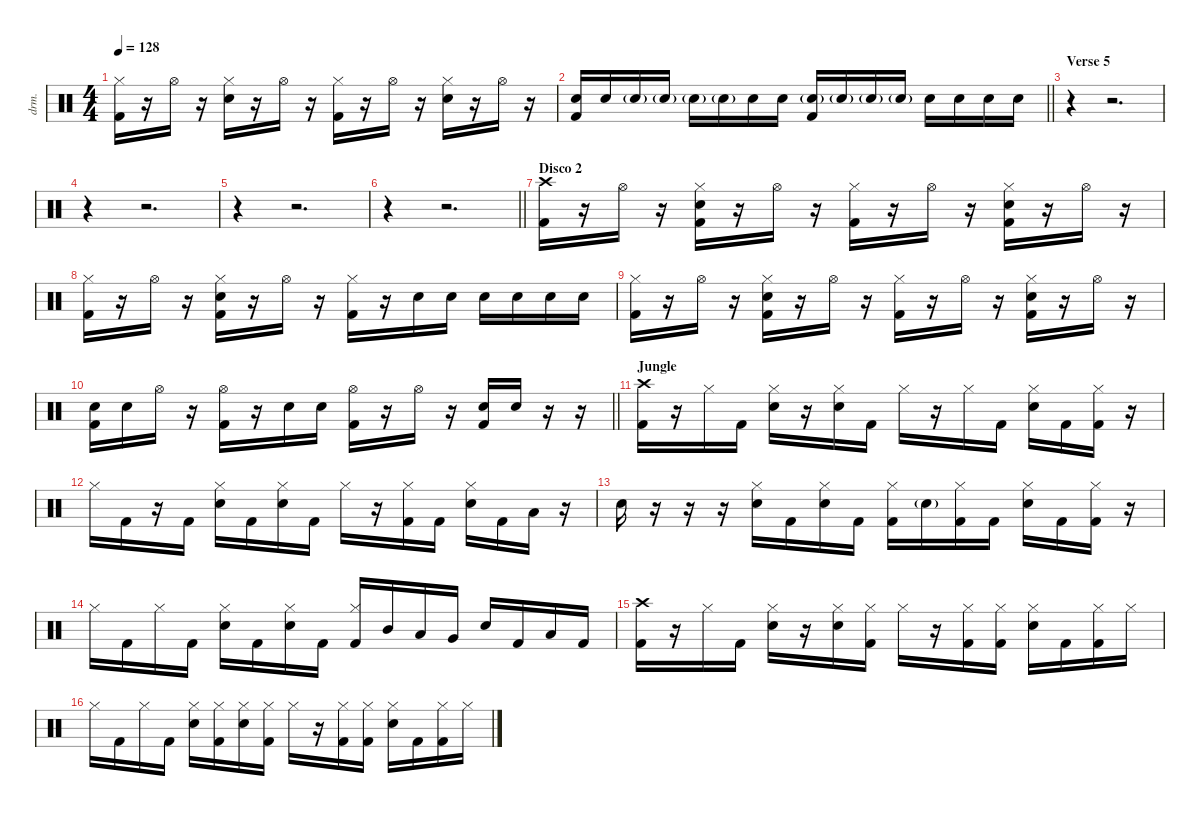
\defaultSystemsLayout 4
\hideDynamics
\bracketExtendMode nobrackets
\otherSystemsTrackNameOrientation horizontal
\track ("Drums" "drm.") {instrument percussion}
\staff {score}
\articulation defaults
\ts (4 4)
\tempo 128
\clef neutral
\ks c
("Hi-Hat (closed)" "Kick (hit) 2").16{dy f beam Down} r.16{beam Down} "Hi-Hat (open)".16{beam Down} r.16{beam Down} ("Hi-Hat (closed)" "Snare (hit) 2").16{beam Down} r.16{beam Down} "Hi-Hat (open)".16{beam Down} r.16{beam Down} ("Hi-Hat (closed)" "Kick (hit) 2").16{beam Down} r.16{beam Down} "Hi-Hat (open)".16{beam Down} r.16{beam Down} ("Hi-Hat (closed)" "Snare (hit) 2").16{beam Down} r.16{beam Down} "Hi-Hat (open)".16{beam Down} r.16{beam Down} |
\barLineRight lightlight
("Snare (hit) 2" "Kick (hit) 2").16{beam Up} "Snare (hit) 2".16{beam Up} "Snare (hit) 2"{g}.16{beam Up} "Snare (hit) 2"{g}.16{beam Up} "Snare (hit) 2"{g}.16{beam Down} "Snare (hit) 2"{g}.16{beam Down} "Snare (hit) 2".16{beam Down} "Snare (hit) 2".16{beam Down} ("Snare (hit) 2"{g} "Kick (hit) 2").16{beam Up} "Snare (hit) 2"{g}.16{beam Up} "Snare (hit) 2"{g}.16{beam Up} "Snare (hit) 2"{g}.16{beam Up} "Snare (hit) 2".16{beam Down} "Snare (hit) 2".16{beam Down} "Snare (hit) 2".16{beam Down} "Snare (hit) 2".16{beam Down} |
\section ("" "Verse 5")
r.4{beam Down} r.2{d beam Down} |
r.4{beam Down} r.2{d beam Down} |
r.4{beam Down} r.2{d beam Down} |
\barLineRight lightlight
r.4{beam Down} r.2{d beam Down} |
\section ("" "Disco 2")
("Crash high (hit)" "Kick (hit) 2").16{beam Down} r.16{beam Down} "Hi-Hat (open)".16{beam Down} r.16{beam Down} ("Hi-Hat (closed)" "Snare (hit) 2" "Kick (hit) 2").16{beam Down} r.16{beam Down} "Hi-Hat (open)".16{beam Down} r.16{beam Down} ("Hi-Hat (closed)" "Kick (hit) 2").16{beam Down} r.16{beam Down} "Hi-Hat (open)".16{beam Down} r.16{beam Down} ("Hi-Hat (closed)" "Snare (hit) 2" "Kick (hit) 2").16{beam Down} r.16{beam Down} "Hi-Hat (open)".16{beam Down} r.16{beam Down} |
("Hi-Hat (closed)" "Kick (hit) 2").16{beam Down} r.16{beam Down} "Hi-Hat (open)".16{beam Down} r.16{beam Down} ("Hi-Hat (closed)" "Snare (hit) 2" "Kick (hit) 2").16{beam Down} r.16{beam Down} "Hi-Hat (open)".16{beam Down} r.16{beam Down} ("Hi-Hat (closed)" "Kick (hit) 2").16{beam Down} r.16{beam Down} "Snare (hit) 2".16{beam Down} "Snare (hit) 2".16{beam Down} "Snare (hit) 2".16{beam Down} "Snare (hit) 2".16{beam Down} "Snare (hit) 2".16{beam Down} "Snare (hit) 2".16{beam Down} |
("Hi-Hat (closed)" "Kick (hit) 2").16{beam Down} r.16{beam Down} "Hi-Hat (open)".16{beam Down} r.16{beam Down} ("Hi-Hat (closed)" "Snare (hit) 2" "Kick (hit) 2").16{beam Down} r.16{beam Down} "Hi-Hat (open)".16{beam Down} r.16{beam Down} ("Hi-Hat (closed)" "Kick (hit) 2").16{beam Down} r.16{beam Down} "Hi-Hat (open)".16{beam Down} r.16{beam Down} ("Hi-Hat (closed)" "Snare (hit) 2" "Kick (hit) 2").16{beam Down} r.16{beam Down} "Hi-Hat (open)".16{beam Down} r.16{beam Down} |
\barLineRight lightlight
("Snare (hit) 2" "Kick (hit) 2").16{beam Down} "Snare (hit) 2".16{beam Down} "Hi-Hat (open)".16{beam Down} r.16{beam Down} ("Hi-Hat (open)" "Kick (hit) 2").16{beam Down} r.16{beam Down} "Snare (hit) 2".16{beam Down} "Snare (hit) 2".16{beam Down} ("Hi-Hat (open)" "Kick (hit) 2").16{beam Down} r.16{beam Down} "Hi-Hat (open)".16{beam Down} r.16{beam Down} ("Snare (hit) 2" "Kick (hit) 2").16{beam Up} "Snare (hit) 2".16{beam Up} r.16{beam Up} r.16{beam Up} |
\section ("" "Jungle")
("Crash high (hit)" "Kick (hit) 2").16{beam Down} r.16{beam Down} "Hi-Hat (closed)".16{beam Down} "Kick (hit) 2".16{beam Down} ("Hi-Hat (closed)" "Snare (hit) 2").16{beam Down} r.16{beam Down} ("Hi-Hat (closed)" "Snare (hit) 2").16{beam Down} "Kick (hit) 2".16{beam Down} "Hi-Hat (closed)".16{beam Down} r.16{beam Down} "Hi-Hat (closed)".16{beam Down} "Kick (hit) 2".16{beam Down} ("Hi-Hat (closed)" "Snare (hit) 2").16{beam Down} "Kick (hit) 2".16{beam Down} ("Hi-Hat (closed)" "Kick (hit) 2").16{beam Down} r.16{beam Down} |
"Hi-Hat (closed)".16{beam Down} "Kick (hit) 2".16{beam Down} r.16{beam Down} "Kick (hit) 2".16{beam Down} ("Hi-Hat (closed)" "Snare (hit) 2").16{beam Down} "Kick (hit) 2".16{beam Down} ("Hi-Hat (closed)" "Snare (hit) 2").16{beam Down} "Kick (hit) 2".16{beam Down} "Hi-Hat (closed)".16{beam Down} r.16{beam Down} ("Hi-Hat (closed)" "Kick (hit) 2").16{beam Down} "Kick (hit) 2".16{beam Down} ("Hi-Hat (closed)" "Snare (hit) 2").16{beam Down} "Kick (hit) 2".16{beam Down} "Low Floor Tom (hit)".16{beam Down} r.16{beam Down} |
"Snare (hit) 2".16{beam Down} r.16{beam Down} r.16{beam Down} r.16{beam Down} ("Hi-Hat (closed)" "Snare (hit) 2").16{beam Down} "Kick (hit) 2".16{beam Down} ("Hi-Hat (closed)" "Snare (hit) 2").16{beam Down} "Kick (hit) 2".16{beam Down} ("Hi-Hat (closed)" "Kick (hit) 2").16{beam Down} "Snare (hit) 2"{g}.16{beam Down} ("Hi-Hat (closed)" "Kick (hit) 2").16{beam Down} "Kick (hit) 2".16{beam Down} ("Hi-Hat (closed)" "Snare (hit) 2").16{beam Down} "Kick (hit) 2".16{beam Down} ("Hi-Hat (closed)" "Kick (hit) 2").16{beam Down} r.16{beam Down} |
"Hi-Hat (closed)".16{beam Down} "Kick (hit) 2".16{beam Down} "Hi-Hat (closed)".16{beam Down} "Kick (hit) 2".16{beam Down} ("Hi-Hat (closed)" "Snare (hit) 2").16{beam Down} "Kick (hit) 2".16{beam Down} ("Hi-Hat (closed)" "Snare (hit) 2").16{beam Down} "Kick (hit) 2".16{beam Down} ("Hi-Hat (closed)" "Kick (hit) 2").16{beam Up} "Mid Tom (hit)".16{beam Up} "Low Tom (hit)".16{beam Up} "Very Low Tom (hit)".16{beam Up} "Snare (hit) 2".16{beam Up} "Kick (hit) 2".16{beam Up} "Low Floor Tom (hit)".16{beam Up} "Kick (hit) 2".16{beam Up} |
("Crash high (hit)" "Kick (hit) 2").16{beam Down} r.16{beam Down} "Hi-Hat (closed)".16{beam Down} "Kick (hit) 2".16{beam Down} ("Hi-Hat (closed)" "Snare (hit) 2").16{beam Down} r.16{beam Down} ("Hi-Hat (closed)" "Snare (hit) 2").16{beam Down} ("Hi-Hat (closed)" "Kick (hit) 2").16{beam Down} "Hi-Hat (closed)".16{beam Down} r.16{beam Down} ("Hi-Hat (closed)" "Kick (hit) 2").16{beam Down} ("Hi-Hat (closed)" "Kick (hit) 2").16{beam Down} ("Hi-Hat (closed)" "Snare (hit) 2").16{beam Down} "Kick (hit) 2".16{beam Down} ("Hi-Hat (closed)" "Kick (hit) 2").16{beam Down} "Hi-Hat (closed)".16{beam Down} |
"Hi-Hat (closed)".16{beam Down} "Kick (hit) 2".16{beam Down} "Hi-Hat (closed)".16{beam Down} "Kick (hit) 2".16{beam Down} ("Hi-Hat (closed)" "Snare (hit) 2").16{beam Down} ("Hi-Hat (closed)" "Kick (hit) 2").16{beam Down} ("Hi-Hat (closed)" "Snare (hit) 2").16{beam Down} ("Hi-Hat (closed)" "Kick (hit) 2").16{beam Down} "Hi-Hat (closed)".16{beam Down} r.16{beam Down} ("Hi-Hat (closed)" "Kick (hit) 2").16{beam Down} ("Hi-Hat (closed)" "Kick (hit) 2").16{beam Down} ("Hi-Hat (closed)" "Snare (hit) 2").16{beam Down} "Kick (hit) 2".16{beam Down} ("Hi-Hat (closed)" "Kick (hit) 2").16{beam Down} "Hi-Hat (closed)".16{beam Down}
